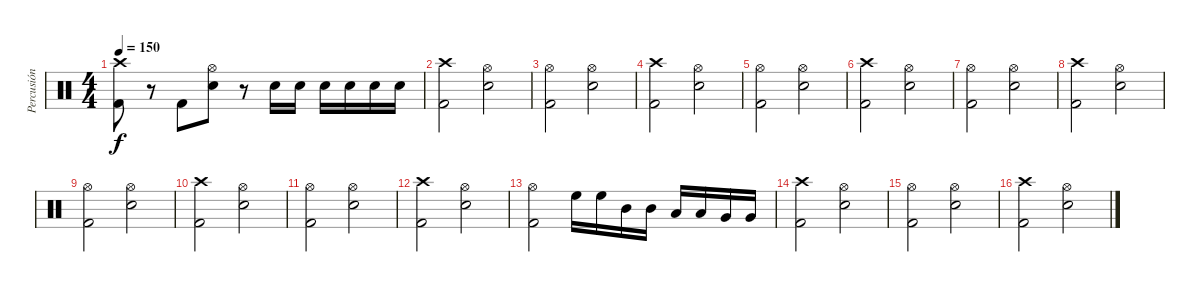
\track ("Percusión" "Percusión") {instrument percussion}
\staff {score}
\articulation defaults
\ts (4 4)
\tempo 150
\clef neutral
\ks c
("Crash high (hit)" "Kick (hit) 2").8{dy f} r.8 "Kick (hit) 2".8 ("Hi-Hat (open)" "Electric Snare (hit)").8 r.8 "Electric Snare (hit)".16 "Electric Snare (hit)".16 "Electric Snare (hit)".16 "Electric Snare (hit)".16 "Electric Snare (hit)".16 "Electric Snare (hit)".16 |
("Crash high (hit)" "Kick (hit) 2").2 ("Hi-Hat (open)" "Electric Snare (hit)").2 |
("Hi-Hat (open)" "Kick (hit) 2").2 ("Hi-Hat (open)" "Electric Snare (hit)").2 |
("Crash high (hit)" "Kick (hit) 2").2 ("Hi-Hat (open)" "Electric Snare (hit)").2 |
("Hi-Hat (open)" "Kick (hit) 2").2 ("Hi-Hat (open)" "Electric Snare (hit)").2 |
("Crash high (hit)" "Kick (hit) 2").2 ("Hi-Hat (open)" "Electric Snare (hit)").2 |
("Hi-Hat (open)" "Kick (hit) 2").2 ("Hi-Hat (open)" "Electric Snare (hit)").2 |
("Crash high (hit)" "Kick (hit) 2").2 ("Hi-Hat (open)" "Electric Snare (hit)").2 |
("Hi-Hat (open)" "Kick (hit) 2").2 ("Hi-Hat (open)" "Electric Snare (hit)").2 |
("Crash high (hit)" "Kick (hit) 2").2 ("Hi-Hat (open)" "Electric Snare (hit)").2 |
("Hi-Hat (open)" "Kick (hit) 2").2 ("Hi-Hat (open)" "Electric Snare (hit)").2 |
("Crash high (hit)" "Kick (hit) 2").2 ("Hi-Hat (open)" "Electric Snare (hit)").2 |
("Hi-Hat (open)" "Kick (hit) 2").2 "High Floor Tom (hit)".16 "High Floor Tom (hit)".16 "Mid Tom (hit)".16 "Mid Tom (hit)".16 "Low Tom (hit)".16 "Low Tom (hit)".16 "Very Low Tom (hit)".16 "Very Low Tom (hit)".16 |
("Crash high (hit)" "Kick (hit) 2").2 ("Hi-Hat (open)" "Electric Snare (hit)").2 |
("Hi-Hat (open)" "Kick (hit) 2").2 ("Hi-Hat (open)" "Electric Snare (hit)").2 |
("Crash high (hit)" "Kick (hit) 2").2 ("Hi-Hat (open)" "Electric Snare (hit)").2
